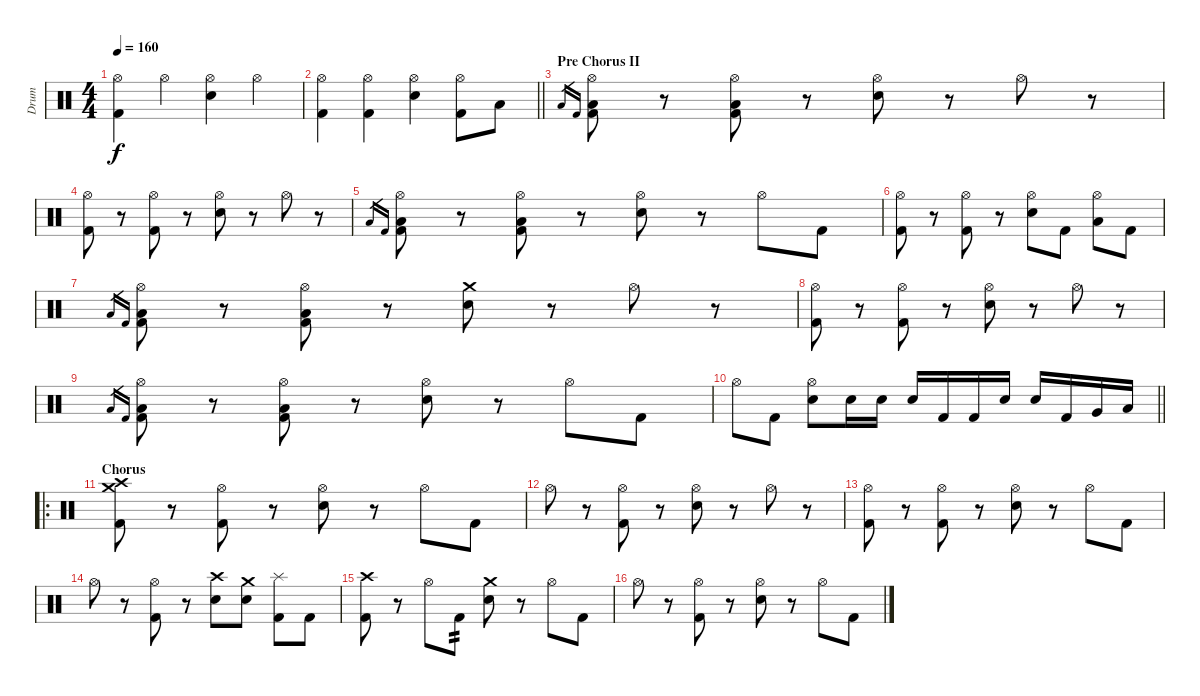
\track ("Drum" "Drum") {instrument percussion}
\staff {score}
\articulation defaults
\ts (4 4)
\tempo 160
\clef neutral
\ks c
("Hi-Hat (open)" "Kick (hit) 2").4{dy f} "Hi-Hat (open)".4 ("Hi-Hat (open)" "Electric Snare (hit)").4 "Hi-Hat (open)".4 |
\barLineRight lightlight
("Hi-Hat (open)" "Kick (hit) 2").4 ("Hi-Hat (open)" "Kick (hit) 2").4 ("Hi-Hat (open)" "Electric Snare (hit)").4 ("Hi-Hat (open)" "Kick (hit) 2").8 "Low Floor Tom (hit)".8 |
\section ("" "Pre Chorus II")
"Low Floor Tom (hit)".16{gr} "Kick (hit) 2".16{gr} ("Hi-Hat (open)" "Low Floor Tom (hit)" "Kick (hit) 2").8{volume 11} r.8 ("Hi-Hat (open)" "Low Floor Tom (hit)" "Kick (hit) 2").8 r.8 ("Hi-Hat (open)" "Electric Snare (hit)").8 r.8 "Hi-Hat (open)".8 r.8 |
("Hi-Hat (open)" "Kick (hit) 2").8 r.8 ("Hi-Hat (open)" "Kick (hit) 2").8 r.8 ("Hi-Hat (open)" "Electric Snare (hit)").8 r.8 "Hi-Hat (open)".8 r.8 |
"Low Floor Tom (hit)".16{gr} "Kick (hit) 2".16{gr} ("Hi-Hat (open)" "Low Floor Tom (hit)" "Kick (hit) 2").8 r.8 ("Hi-Hat (open)" "Low Floor Tom (hit)" "Kick (hit) 2").8 r.8 ("Hi-Hat (open)" "Electric Snare (hit)").8 r.8 "Hi-Hat (open)".8 "Kick (hit) 2".8 |
("Hi-Hat (open)" "Kick (hit) 2").8 r.8 ("Hi-Hat (open)" "Kick (hit) 2").8 r.8 ("Hi-Hat (open)" "Electric Snare (hit)").8 "Kick (hit) 2".8 ("Hi-Hat (open)" "Low Floor Tom (hit)").8 "Kick (hit) 2".8 |
"Low Floor Tom (hit)".16{gr} "Kick (hit) 2".16{gr} ("Hi-Hat (open)" "Low Floor Tom (hit)" "Kick (hit) 2").8 r.8 ("Hi-Hat (open)" "Low Floor Tom (hit)" "Kick (hit) 2").8 r.8 ("Crash medium (hit)" "Electric Snare (hit)").8 r.8 "Hi-Hat (open)".8 r.8 |
("Hi-Hat (open)" "Kick (hit) 2").8 r.8 ("Hi-Hat (open)" "Kick (hit) 2").8 r.8 ("Hi-Hat (open)" "Electric Snare (hit)").8 r.8 "Hi-Hat (open)".8 r.8 |
"Low Floor Tom (hit)".16{gr} "Kick (hit) 2".16{gr} ("Hi-Hat (open)" "Low Floor Tom (hit)" "Kick (hit) 2").8 r.8 ("Hi-Hat (open)" "Low Floor Tom (hit)" "Kick (hit) 2").8 r.8 ("Hi-Hat (open)" "Electric Snare (hit)").8 r.8 "Hi-Hat (open)".8 "Kick (hit) 2".8 |
\barLineRight lightlight "Hi-Hat (open)".8 "Kick (hit) 2".8
("Hi-Hat (open)" "Electric Snare (hit)").8 "Electric Snare (hit)".16 "Electric Snare (hit)".16 "Electric Snare (hit)".16 "Kick (hit) 2".16 "Kick (hit) 2".16 "Electric Snare (hit)".16 "Electric Snare (hit)".16 "Kick (hit) 2".16 "Very Low Tom (hit)".16 "Low Floor Tom (hit)".16 |
\ro
\section ("" "Chorus")
("Crash high (hit)" "Crash medium (hit)" "Kick (hit) 2").8 r.8 ("Hi-Hat (open)" "Kick (hit) 2").8 r.8 ("Hi-Hat (open)" "Electric Snare (hit)").8 r.8 "Hi-Hat (open)".8 "Kick (hit) 2".8 |
"Hi-Hat (open)".8 r.8 ("Hi-Hat (open)" "Kick (hit) 2").8 r.8 ("Hi-Hat (open)" "Electric Snare (hit)").8 r.8 "Hi-Hat (open)".8 r.8 |
("Hi-Hat (open)" "Kick (hit) 2").8 r.8 ("Hi-Hat (open)" "Kick (hit) 2").8 r.8 ("Hi-Hat (open)" "Electric Snare (hit)").8 r.8 "Hi-Hat (open)".8 "Kick (hit) 2".8 |
"Hi-Hat (open)".8 r.8 ("Hi-Hat (open)" "Kick (hit) 2").8 r.8 ("Crash high (hit)" "Electric Snare (hit)").8 ("Crash medium (hit)" "Electric Snare (hit)").8 ("Splash (hit)" "Kick (hit) 2").8 "Kick (hit) 2".8 |
("Crash high (hit)" "Kick (hit) 2").8 r.8 "Hi-Hat (open)".8 "Kick (hit) 2".8{tp 2} ("Crash medium (hit)" "Electric Snare (hit)").8 r.8 "Hi-Hat (open)".8 "Kick (hit) 2".8 |
"Hi-Hat (open)".8 r.8 ("Hi-Hat (open)" "Kick (hit) 2").8 r.8 ("Hi-Hat (open)" "Electric Snare (hit)").8 r.8 "Hi-Hat (open)".8 "Kick (hit) 2".8
